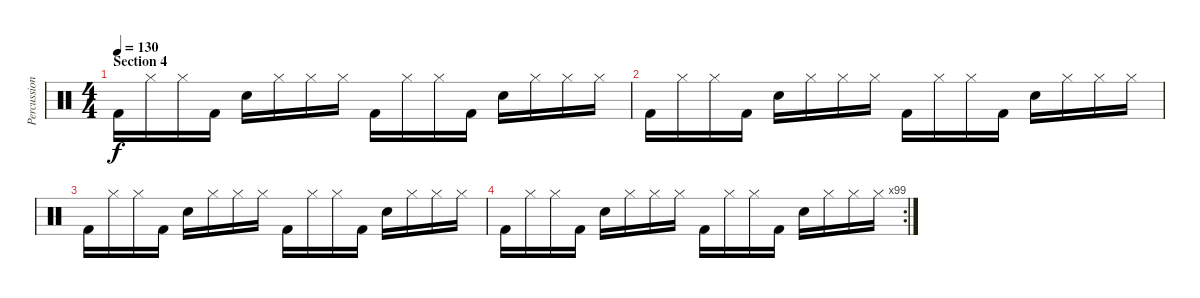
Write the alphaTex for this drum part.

\track ("Percussion" "Percussion") {instrument percussion}
\staff {score}
\articulation defaults
\ts (4 4)
\section ("" "Section 4")
\tempo 130
\clef neutral
\ks c "Kick (hit) 2".16{dy f} "Hi-Hat (closed)".16 "Hi-Hat (closed)".16 "Kick (hit) 2".16 "Snare (hit) 2".16 "Hi-Hat (closed)".16 "Hi-Hat (closed)".16 "Hi-Hat (closed)".16 "Kick (hit) 2".16 "Hi-Hat (closed)".16 "Hi-Hat (closed)".16 "Kick (hit) 2".16 "Snare (hit) 2".16 "Hi-Hat (closed)".16 "Hi-Hat (closed)".16 "Hi-Hat (closed)".16
|
"Kick (hit) 2".16 "Hi-Hat (closed)".16 "Hi-Hat (closed)".16 "Kick (hit) 2".16 "Snare (hit) 2".16 "Hi-Hat (closed)".16 "Hi-Hat (closed)".16 "Hi-Hat (closed)".16 "Kick (hit) 2".16 "Hi-Hat (closed)".16 "Hi-Hat (closed)".16 "Kick (hit) 2".16 "Snare (hit) 2".16 "Hi-Hat (closed)".16 "Hi-Hat (closed)".16 "Hi-Hat (closed)".16 |
"Kick (hit) 2".16 "Hi-Hat (closed)".16 "Hi-Hat (closed)".16 "Kick (hit) 2".16 "Snare (hit) 2".16 "Hi-Hat (closed)".16 "Hi-Hat (closed)".16 "Hi-Hat (closed)".16 "Kick (hit) 2".16 "Hi-Hat (closed)".16 "Hi-Hat (closed)".16 "Kick (hit) 2".16 "Snare (hit) 2".16 "Hi-Hat (closed)".16 "Hi-Hat (closed)".16 "Hi-Hat (closed)".16 |
\rc 99 "Kick (hit) 2".16 "Hi-Hat (closed)".16 "Hi-Hat (closed)".16 "Kick (hit) 2".16 "Snare (hit) 2".16 "Hi-Hat (closed)".16 "Hi-Hat (closed)".16 "Hi-Hat (closed)".16 "Kick (hit) 2".16 "Hi-Hat (closed)".16 "Hi-Hat (closed)".16 "Kick (hit) 2".16 "Snare (hit) 2".16 "Hi-Hat (closed)".16 "Hi-Hat (closed)".16 "Hi-Hat (closed)".16
